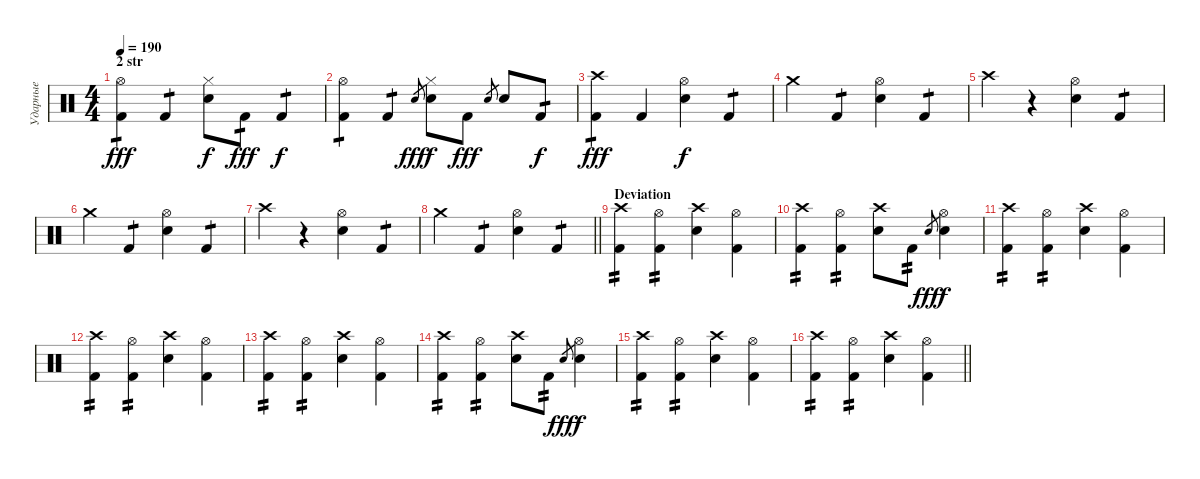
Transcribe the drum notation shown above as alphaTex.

\track ("Ударные" "Ударные") {instrument percussion}
\staff {score}
\articulation defaults
\ts (4 4)
\section ("" "2 str")
\tempo 190
\clef neutral
\ks c
("Hi-Hat (open)" "Kick (hit) 2").4{tp 1 dy fff} "Kick (hit) 2".4{tp 1} ("Hi-Hat (closed)" "Snare (hit) 2").8{dy f} "Kick (hit) 2".8{tp 1 dy fff} "Kick (hit) 2".4{tp 1 dy f} |
("Hi-Hat (open)" "Kick (hit) 2").4{tp 1} "Kick (hit) 2".4{tp 1} "Snare (hit) 2".8{gr dy fff} ("Hi-Hat (closed)" "Snare (hit) 2").8{dy f} "Kick (hit) 2".8{dy fff} "Snare (hit) 2".8{gr} "Snare (hit) 2".8 "Kick (hit) 2".8{tp 1 dy f} |
("Crash high (hit)" "Kick (hit) 2").4{tp 1 dy fff} "Kick (hit) 2".4 ("Hi-Hat (open)" "Snare (hit) 2").4{dy f} "Kick (hit) 2".4{tp 1} |
"Crash medium (hit)".4 "Kick (hit) 2".4{tp 1} ("Hi-Hat (open)" "Snare (hit) 2").4 "Kick (hit) 2".4{tp 1} |
"Crash high (hit)".4 r.4 ("Hi-Hat (open)" "Snare (hit) 2").4 "Kick (hit) 2".4{tp 1} |
"Crash medium (hit)".4 "Kick (hit) 2".4{tp 1} ("Hi-Hat (open)" "Snare (hit) 2").4 "Kick (hit) 2".4{tp 1} |
"Crash high (hit)".4 r.4 ("Hi-Hat (open)" "Snare (hit) 2").4 "Kick (hit) 2".4{tp 1} |
\barLineRight lightlight "Crash medium (hit)".4 "Kick (hit) 2".4{tp 1}
("Hi-Hat (open)" "Snare (hit) 2").4 "Kick (hit) 2".4{tp 1} |
\section ("" "Deviation")
("Crash high (hit)" "Kick (hit) 2").4{tp 2} ("Hi-Hat (open)" "Kick (hit) 2").4{tp 2} ("Crash high (hit)" "Snare (hit) 2").4 ("Hi-Hat (open)" "Kick (hit) 2").4 |
("Crash high (hit)" "Kick (hit) 2").4{tp 2} ("Hi-Hat (open)" "Kick (hit) 2").4{tp 2} ("Crash high (hit)" "Snare (hit) 2").8 "Kick (hit) 2".8{tp 2} "Snare (hit) 2".8{gr dy fff} ("Hi-Hat (open)" "Snare (hit) 2").4{dy f} |
("Crash high (hit)" "Kick (hit) 2").4{tp 2} ("Hi-Hat (open)" "Kick (hit) 2").4{tp 2} ("Crash high (hit)" "Snare (hit) 2").4 ("Hi-Hat (open)" "Kick (hit) 2").4 |
("Crash high (hit)" "Kick (hit) 2").4{tp 2} ("Hi-Hat (open)" "Kick (hit) 2").4{tp 2} ("Crash high (hit)" "Snare (hit) 2").4 ("Hi-Hat (open)" "Kick (hit) 2").4 |
("Crash high (hit)" "Kick (hit) 2").4{tp 2} ("Hi-Hat (open)" "Kick (hit) 2").4{tp 2} ("Crash high (hit)" "Snare (hit) 2").4 ("Hi-Hat (open)" "Kick (hit) 2").4 |
("Crash high (hit)" "Kick (hit) 2").4{tp 2} ("Hi-Hat (open)" "Kick (hit) 2").4{tp 2} ("Crash high (hit)" "Snare (hit) 2").8 "Kick (hit) 2".8{tp 2} "Snare (hit) 2".8{gr dy fff} ("Hi-Hat (open)" "Snare (hit) 2").4{dy f} |
("Crash high (hit)" "Kick (hit) 2").4{tp 2} ("Hi-Hat (open)" "Kick (hit) 2").4{tp 2} ("Crash high (hit)" "Snare (hit) 2").4 ("Hi-Hat (open)" "Kick (hit) 2").4 |
\barLineRight lightlight
("Crash high (hit)" "Kick (hit) 2").4{tp 2} ("Hi-Hat (open)" "Kick (hit) 2").4{tp 2} ("Crash high (hit)" "Snare (hit) 2").4 ("Hi-Hat (open)" "Kick (hit) 2").4
